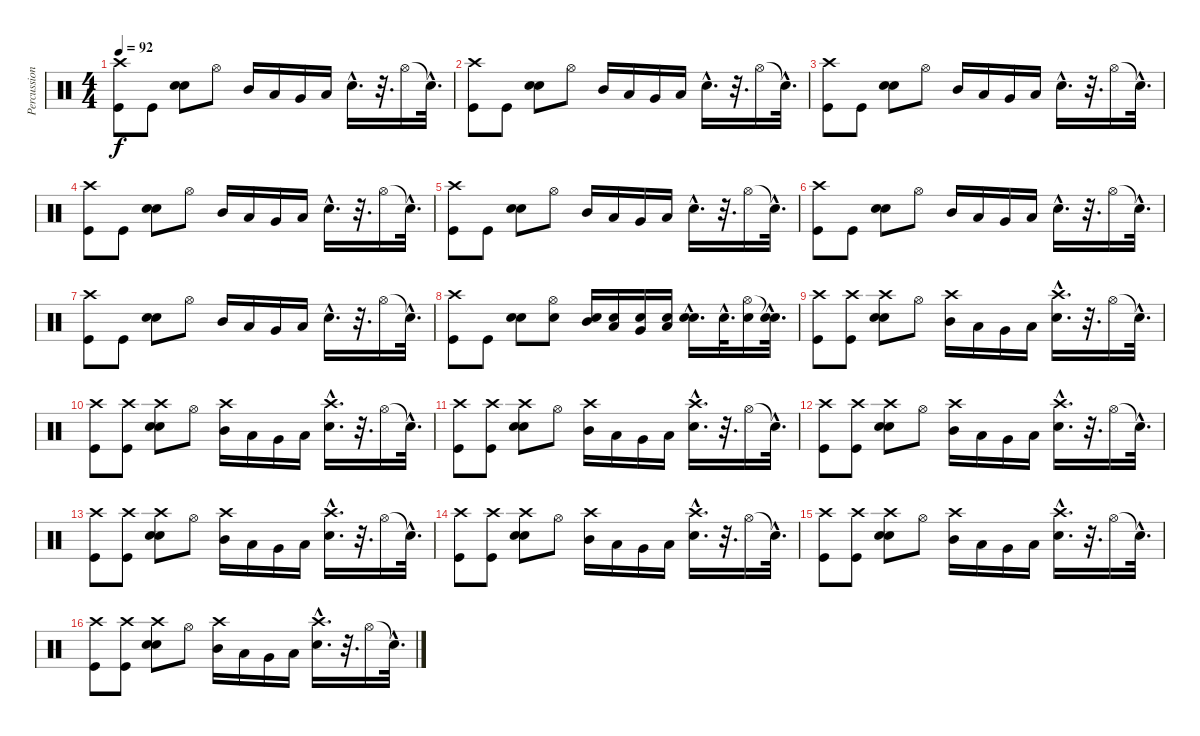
\track ("Percussions (Etn)" "Percussion") {instrument percussion}
\staff {score}
\articulation defaults
\ts (4 4)
\tempo 92
\clef neutral
\ks c
("Crash high (hit)" "Kick (hit)").8{dy f} "Kick (hit)".8 ("Snare (hit) 2" "Electric Snare (hit)").8{bd 120} "Hi-Hat (open)".8 "Mid Tom (hit)".16 "Low Tom (hit)".16 "Very Low Tom (hit)".16 "Low Floor Tom (hit)".16 "Electric Snare (hit)"{hac}.16{d} r.32{d} "Hi-Hat (open)".16 "Snare (hit)"{hac t}.32{d} |
("Crash high (hit)" "Kick (hit)").8 "Kick (hit)".8 ("Snare (hit) 2" "Electric Snare (hit)").8{bd 120} "Hi-Hat (open)".8 "Mid Tom (hit)".16 "Low Tom (hit)".16 "Very Low Tom (hit)".16 "Low Floor Tom (hit)".16 "Electric Snare (hit)"{hac}.16{d} r.32{d} "Hi-Hat (open)".16 "Snare (hit)"{hac t}.32{d} |
("Crash high (hit)" "Kick (hit)").8 "Kick (hit)".8 ("Snare (hit) 2" "Electric Snare (hit)").8{bd 120} "Hi-Hat (open)".8 "Mid Tom (hit)".16 "Low Tom (hit)".16 "Very Low Tom (hit)".16 "Low Floor Tom (hit)".16 "Electric Snare (hit)"{hac}.16{d} r.32{d} "Hi-Hat (open)".16 "Snare (hit)"{hac t}.32{d} |
("Crash high (hit)" "Kick (hit)").8 "Kick (hit)".8 ("Snare (hit) 2" "Electric Snare (hit)").8{bd 120} "Hi-Hat (open)".8 "Mid Tom (hit)".16 "Low Tom (hit)".16 "Very Low Tom (hit)".16 "Low Floor Tom (hit)".16 "Electric Snare (hit)"{hac}.16{d} r.32{d} "Hi-Hat (open)".16 "Snare (hit)"{hac t}.32{d} |
("Crash high (hit)" "Kick (hit)").8 "Kick (hit)".8 ("Snare (hit) 2" "Electric Snare (hit)").8{bd 120} "Hi-Hat (open)".8 "Mid Tom (hit)".16 "Low Tom (hit)".16 "Very Low Tom (hit)".16 "Low Floor Tom (hit)".16 "Electric Snare (hit)"{hac}.16{d} r.32{d} "Hi-Hat (open)".16 "Snare (hit)"{hac t}.32{d} |
("Crash high (hit)" "Kick (hit)").8 "Kick (hit)".8 ("Snare (hit) 2" "Electric Snare (hit)").8{bd 120} "Hi-Hat (open)".8 "Mid Tom (hit)".16 "Low Tom (hit)".16 "Very Low Tom (hit)".16 "Low Floor Tom (hit)".16 "Electric Snare (hit)"{hac}.16{d} r.32{d} "Hi-Hat (open)".16 "Snare (hit)"{hac t}.32{d} |
("Crash high (hit)" "Kick (hit)").8 "Kick (hit)".8 ("Snare (hit) 2" "Electric Snare (hit)").8{bd 120} "Hi-Hat (open)".8 "Mid Tom (hit)".16 "Low Tom (hit)".16 "Very Low Tom (hit)".16 "Low Floor Tom (hit)".16 "Electric Snare (hit)"{hac}.16{d} r.32{d} "Hi-Hat (open)".16 "Snare (hit)"{hac t}.32{d} |
("Crash high (hit)" "Kick (hit)").8 "Kick (hit)".8 ("Snare (hit) 2" "Electric Snare (hit)").8{bd 120} ("Hi-Hat (open)" "Electric Snare (hit)").8 ("Mid Tom (hit)" "Electric Snare (hit)").16 ("Low Tom (hit)" "Electric Snare (hit)").16 ("Very Low Tom (hit)" "Electric Snare (hit)").16 ("Low Floor Tom (hit)" "Electric Snare (hit)").16 ("Electric Snare (hit)"{hac} "Electric Snare (hit)"{hac}).16{d} "Electric Snare (hit)"{hac}.32{d} ("Hi-Hat (open)" "Electric Snare (hit)").16 ("Snare (hit)"{hac t} "Electric Snare (hit)"{hac}).32{d} |
("Crash high (hit)" "Kick (hit)").8 ("Crash high (hit)" "Kick (hit)").8 ("Crash high (hit)" "Snare (hit) 2" "Electric Snare (hit)").8{bd 120} "Hi-Hat (open)".8 ("Crash high (hit)" "Mid Tom (hit)").16 "Low Tom (hit)".16 "Very Low Tom (hit)".16 "Low Floor Tom (hit)".16 ("Crash high (hit)"{hac} "Electric Snare (hit)"{hac}).16{d} r.32{d} "Hi-Hat (open)".16 "Snare (hit)"{hac t}.32{d} |
("Crash high (hit)" "Kick (hit)").8 ("Crash high (hit)" "Kick (hit)").8 ("Crash high (hit)" "Snare (hit) 2" "Electric Snare (hit)").8{bd 120} "Hi-Hat (open)".8 ("Crash high (hit)" "Mid Tom (hit)").16 "Low Tom (hit)".16 "Very Low Tom (hit)".16 "Low Floor Tom (hit)".16 ("Crash high (hit)"{hac} "Electric Snare (hit)"{hac}).16{d} r.32{d} "Hi-Hat (open)".16 "Snare (hit)"{hac t}.32{d} |
("Crash high (hit)" "Kick (hit)").8 ("Crash high (hit)" "Kick (hit)").8 ("Crash high (hit)" "Snare (hit) 2" "Electric Snare (hit)").8{bd 120} "Hi-Hat (open)".8 ("Crash high (hit)" "Mid Tom (hit)").16 "Low Tom (hit)".16 "Very Low Tom (hit)".16 "Low Floor Tom (hit)".16 ("Crash high (hit)"{hac} "Electric Snare (hit)"{hac}).16{d} r.32{d} "Hi-Hat (open)".16 "Snare (hit)"{hac t}.32{d} |
("Crash high (hit)" "Kick (hit)").8 ("Crash high (hit)" "Kick (hit)").8 ("Crash high (hit)" "Snare (hit) 2" "Electric Snare (hit)").8{bd 120} "Hi-Hat (open)".8 ("Crash high (hit)" "Mid Tom (hit)").16 "Low Tom (hit)".16 "Very Low Tom (hit)".16 "Low Floor Tom (hit)".16 ("Crash high (hit)"{hac} "Electric Snare (hit)"{hac}).16{d} r.32{d} "Hi-Hat (open)".16 "Snare (hit)"{hac t}.32{d} |
("Crash high (hit)" "Kick (hit)").8 ("Crash high (hit)" "Kick (hit)").8 ("Crash high (hit)" "Snare (hit) 2" "Electric Snare (hit)").8{bd 120} "Hi-Hat (open)".8 ("Crash high (hit)" "Mid Tom (hit)").16 "Low Tom (hit)".16 "Very Low Tom (hit)".16 "Low Floor Tom (hit)".16 ("Crash high (hit)"{hac} "Electric Snare (hit)"{hac}).16{d} r.32{d} "Hi-Hat (open)".16 "Snare (hit)"{hac t}.32{d} |
("Crash high (hit)" "Kick (hit)").8 ("Crash high (hit)" "Kick (hit)").8 ("Crash high (hit)" "Snare (hit) 2" "Electric Snare (hit)").8{bd 120} "Hi-Hat (open)".8 ("Crash high (hit)" "Mid Tom (hit)").16 "Low Tom (hit)".16 "Very Low Tom (hit)".16 "Low Floor Tom (hit)".16 ("Crash high (hit)"{hac} "Electric Snare (hit)"{hac}).16{d} r.32{d} "Hi-Hat (open)".16 "Snare (hit)"{hac t}.32{d} |
("Crash high (hit)" "Kick (hit)").8 ("Crash high (hit)" "Kick (hit)").8 ("Crash high (hit)" "Snare (hit) 2" "Electric Snare (hit)").8{bd 120} "Hi-Hat (open)".8 ("Crash high (hit)" "Mid Tom (hit)").16 "Low Tom (hit)".16 "Very Low Tom (hit)".16 "Low Floor Tom (hit)".16 ("Crash high (hit)"{hac} "Electric Snare (hit)"{hac}).16{d} r.32{d} "Hi-Hat (open)".16 "Snare (hit)"{hac t}.32{d} |
("Crash high (hit)" "Kick (hit)").8 ("Crash high (hit)" "Kick (hit)").8 ("Crash high (hit)" "Snare (hit) 2" "Electric Snare (hit)").8{bd 120} "Hi-Hat (open)".8 ("Crash high (hit)" "Mid Tom (hit)").16 "Low Tom (hit)".16 "Very Low Tom (hit)".16 "Low Floor Tom (hit)".16 ("Crash high (hit)"{hac} "Electric Snare (hit)"{hac}).16{d} r.32{d} "Hi-Hat (open)".16 "Snare (hit)"{hac t}.32{d}
